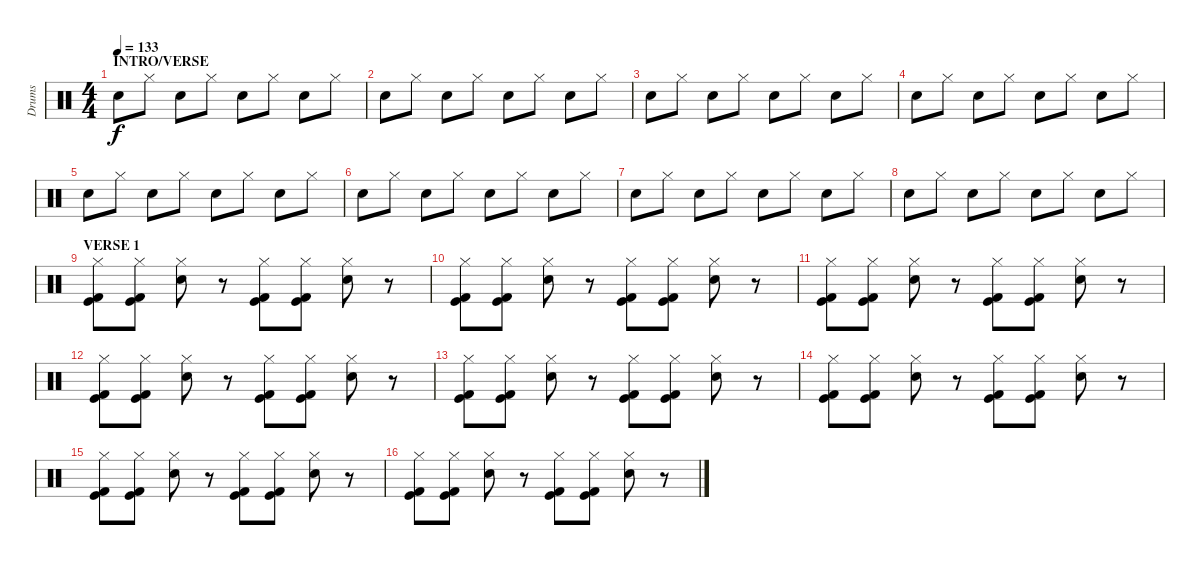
\track ("Drums" "Drums") {instrument percussion}
\staff {score}
\articulation defaults
\ts (4 4)
\section ("" "INTRO/VERSE")
\tempo 133
\clef neutral
\ks c "Electric Snare (hit)".8{dy f} "Hi-Hat (closed)".8 "Electric Snare (hit)".8 "Hi-Hat (closed)".8 "Electric Snare (hit)".8 "Hi-Hat (closed)".8 "Electric Snare (hit)".8 "Hi-Hat (closed)".8
|
"Electric Snare (hit)".8 "Hi-Hat (closed)".8 "Electric Snare (hit)".8 "Hi-Hat (closed)".8 "Electric Snare (hit)".8 "Hi-Hat (closed)".8 "Electric Snare (hit)".8 "Hi-Hat (closed)".8 |
"Electric Snare (hit)".8 "Hi-Hat (closed)".8 "Electric Snare (hit)".8 "Hi-Hat (closed)".8 "Electric Snare (hit)".8 "Hi-Hat (closed)".8 "Electric Snare (hit)".8 "Hi-Hat (closed)".8 |
"Electric Snare (hit)".8 "Hi-Hat (closed)".8 "Electric Snare (hit)".8 "Hi-Hat (closed)".8 "Electric Snare (hit)".8 "Hi-Hat (closed)".8 "Electric Snare (hit)".8 "Hi-Hat (closed)".8 |
"Electric Snare (hit)".8 "Hi-Hat (closed)".8 "Electric Snare (hit)".8 "Hi-Hat (closed)".8 "Electric Snare (hit)".8 "Hi-Hat (closed)".8 "Electric Snare (hit)".8 "Hi-Hat (closed)".8 |
"Electric Snare (hit)".8 "Hi-Hat (closed)".8 "Electric Snare (hit)".8 "Hi-Hat (closed)".8 "Electric Snare (hit)".8 "Hi-Hat (closed)".8 "Electric Snare (hit)".8 "Hi-Hat (closed)".8 |
"Electric Snare (hit)".8 "Hi-Hat (closed)".8 "Electric Snare (hit)".8 "Hi-Hat (closed)".8 "Electric Snare (hit)".8 "Hi-Hat (closed)".8 "Electric Snare (hit)".8 "Hi-Hat (closed)".8 |
"Electric Snare (hit)".8 "Hi-Hat (closed)".8 "Electric Snare (hit)".8 "Hi-Hat (closed)".8 "Electric Snare (hit)".8 "Hi-Hat (closed)".8 "Electric Snare (hit)".8 "Hi-Hat (closed)".8 |
\section ("" "VERSE 1")
("Hi-Hat (closed)" "Kick (hit) 2" "Kick (hit)").8 ("Hi-Hat (closed)" "Kick (hit) 2" "Kick (hit)").8 ("Hi-Hat (closed)" "Electric Snare (hit)").8 r.8 ("Hi-Hat (closed)" "Kick (hit) 2" "Kick (hit)").8 ("Hi-Hat (closed)" "Kick (hit) 2" "Kick (hit)").8 ("Hi-Hat (closed)" "Electric Snare (hit)").8 r.8 |
("Hi-Hat (closed)" "Kick (hit) 2" "Kick (hit)").8 ("Hi-Hat (closed)" "Kick (hit) 2" "Kick (hit)").8 ("Hi-Hat (closed)" "Electric Snare (hit)").8 r.8 ("Hi-Hat (closed)" "Kick (hit) 2" "Kick (hit)").8 ("Hi-Hat (closed)" "Kick (hit) 2" "Kick (hit)").8 ("Hi-Hat (closed)" "Electric Snare (hit)").8 r.8 |
("Hi-Hat (closed)" "Kick (hit) 2" "Kick (hit)").8 ("Hi-Hat (closed)" "Kick (hit) 2" "Kick (hit)").8 ("Hi-Hat (closed)" "Electric Snare (hit)").8 r.8 ("Hi-Hat (closed)" "Kick (hit) 2" "Kick (hit)").8 ("Hi-Hat (closed)" "Kick (hit) 2" "Kick (hit)").8 ("Hi-Hat (closed)" "Electric Snare (hit)").8 r.8 |
("Hi-Hat (closed)" "Kick (hit) 2" "Kick (hit)").8 ("Hi-Hat (closed)" "Kick (hit) 2" "Kick (hit)").8 ("Hi-Hat (closed)" "Electric Snare (hit)").8 r.8 ("Hi-Hat (closed)" "Kick (hit) 2" "Kick (hit)").8 ("Hi-Hat (closed)" "Kick (hit) 2" "Kick (hit)").8 ("Hi-Hat (closed)" "Electric Snare (hit)").8 r.8 |
("Hi-Hat (closed)" "Kick (hit) 2" "Kick (hit)").8 ("Hi-Hat (closed)" "Kick (hit) 2" "Kick (hit)").8 ("Hi-Hat (closed)" "Electric Snare (hit)").8 r.8 ("Hi-Hat (closed)" "Kick (hit) 2" "Kick (hit)").8 ("Hi-Hat (closed)" "Kick (hit) 2" "Kick (hit)").8 ("Hi-Hat (closed)" "Electric Snare (hit)").8 r.8 |
("Hi-Hat (closed)" "Kick (hit) 2" "Kick (hit)").8 ("Hi-Hat (closed)" "Kick (hit) 2" "Kick (hit)").8 ("Hi-Hat (closed)" "Electric Snare (hit)").8 r.8 ("Hi-Hat (closed)" "Kick (hit) 2" "Kick (hit)").8 ("Hi-Hat (closed)" "Kick (hit) 2" "Kick (hit)").8 ("Hi-Hat (closed)" "Electric Snare (hit)").8 r.8 |
("Hi-Hat (closed)" "Kick (hit) 2" "Kick (hit)").8 ("Hi-Hat (closed)" "Kick (hit) 2" "Kick (hit)").8 ("Hi-Hat (closed)" "Electric Snare (hit)").8 r.8 ("Hi-Hat (closed)" "Kick (hit) 2" "Kick (hit)").8 ("Hi-Hat (closed)" "Kick (hit) 2" "Kick (hit)").8 ("Hi-Hat (closed)" "Electric Snare (hit)").8 r.8 |
("Hi-Hat (closed)" "Kick (hit) 2" "Kick (hit)").8 ("Hi-Hat (closed)" "Kick (hit) 2" "Kick (hit)").8 ("Hi-Hat (closed)" "Electric Snare (hit)").8 r.8 ("Hi-Hat (closed)" "Kick (hit) 2" "Kick (hit)").8 ("Hi-Hat (closed)" "Kick (hit) 2" "Kick (hit)").8 ("Hi-Hat (closed)" "Electric Snare (hit)").8 r.8
